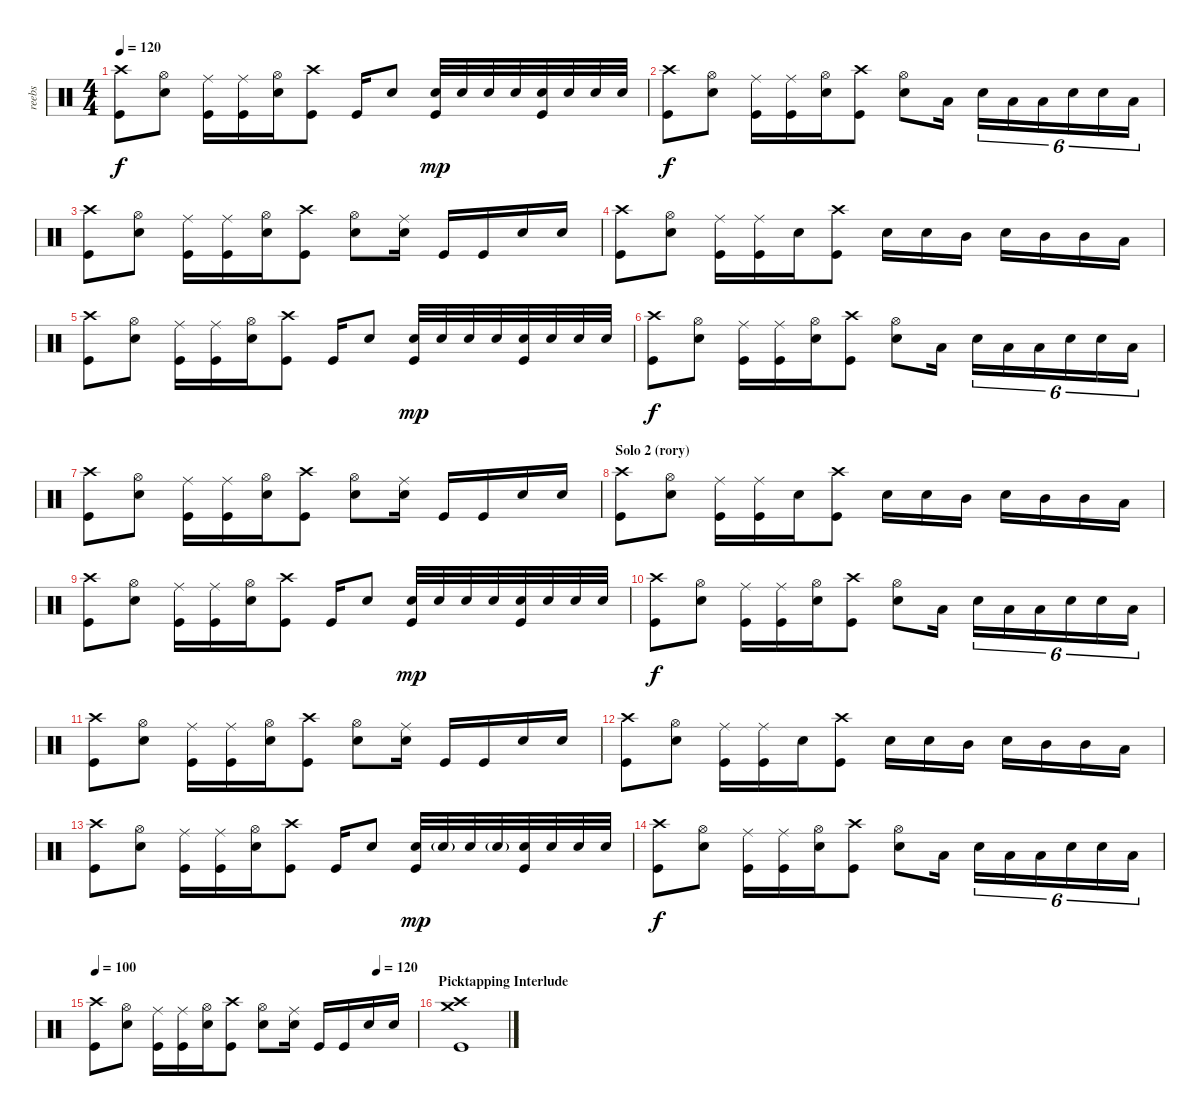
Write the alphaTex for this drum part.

\track ("reebs" "reebs") {instrument percussion}
\staff {score}
\articulation defaults
\ts (4 4)
\tempo 120
\clef neutral
\ks c
("Crash high (hit)" "Kick (hit)").8{dy f} ("Hi-Hat (open)" "Electric Snare (hit)").8 ("Ride (middle)" "Kick (hit)").16 ("Ride (middle)" "Kick (hit)").16 ("Hi-Hat (open)" "Electric Snare (hit)").16 ("Crash high (hit)" "Kick (hit)").8 "Kick (hit)".16 "Electric Snare (hit)".8 ("Electric Snare (hit)" "Kick (hit)").32{dy mp} "Electric Snare (hit)".32 "Electric Snare (hit)".32 "Electric Snare (hit)".32 ("Electric Snare (hit)" "Kick (hit)").32 "Electric Snare (hit)".32 "Electric Snare (hit)".32 "Electric Snare (hit)".32 |
("Crash high (hit)" "Kick (hit)").8{dy f} ("Hi-Hat (open)" "Electric Snare (hit)").8 ("Ride (middle)" "Kick (hit)").16 ("Ride (middle)" "Kick (hit)").16 ("Hi-Hat (open)" "Electric Snare (hit)").16 ("Crash high (hit)" "Kick (hit)").8 ("Hi-Hat (open)" "Electric Snare (hit)").8 "Low Tom (hit)".16 "Electric Snare (hit)".16{tu (6 4)} "Low Tom (hit)".16{tu (6 4)} "Low Tom (hit)".16{tu (6 4)} "Electric Snare (hit)".16{tu (6 4)} "Electric Snare (hit)".16{tu (6 4)} "Low Tom (hit)".16{tu (6 4)} |
("Crash high (hit)" "Kick (hit)").8 ("Hi-Hat (open)" "Electric Snare (hit)").8 ("Ride (middle)" "Kick (hit)").16 ("Ride (middle)" "Kick (hit)").16 ("Hi-Hat (open)" "Electric Snare (hit)").16 ("Crash high (hit)" "Kick (hit)").8 ("Hi-Hat (open)" "Electric Snare (hit)").8 ("Ride (middle)" "Electric Snare (hit)").16 "Kick (hit)".16 "Kick (hit)".16 "Electric Snare (hit)".16 "Electric Snare (hit)".16 |
("Crash high (hit)" "Kick (hit)").8 ("Hi-Hat (open)" "Electric Snare (hit)").8 ("Ride (middle)" "Kick (hit)").16 ("Ride (middle)" "Kick (hit)").16 "Electric Snare (hit)".16 ("Crash high (hit)" "Kick (hit)").8 "Electric Snare (hit)".16 "Electric Snare (hit)".16 "Mid Tom (hit)".16 "Electric Snare (hit)".16 "Mid Tom (hit)".16 "Mid Tom (hit)".16 "Low Tom (hit)".16 |
("Crash high (hit)" "Kick (hit)").8 ("Hi-Hat (open)" "Electric Snare (hit)").8 ("Ride (middle)" "Kick (hit)").16 ("Ride (middle)" "Kick (hit)").16 ("Hi-Hat (open)" "Electric Snare (hit)").16 ("Crash high (hit)" "Kick (hit)").8 "Kick (hit)".16 "Electric Snare (hit)".8 ("Electric Snare (hit)" "Kick (hit)").32{dy mp} "Electric Snare (hit)".32 "Electric Snare (hit)".32 "Electric Snare (hit)".32 ("Electric Snare (hit)" "Kick (hit)").32 "Electric Snare (hit)".32 "Electric Snare (hit)".32 "Electric Snare (hit)".32 |
("Crash high (hit)" "Kick (hit)").8{dy f} ("Hi-Hat (open)" "Electric Snare (hit)").8 ("Ride (middle)" "Kick (hit)").16 ("Ride (middle)" "Kick (hit)").16 ("Hi-Hat (open)" "Electric Snare (hit)").16 ("Crash high (hit)" "Kick (hit)").8 ("Hi-Hat (open)" "Electric Snare (hit)").8 "Low Tom (hit)".16 "Electric Snare (hit)".16{tu (6 4)} "Low Tom (hit)".16{tu (6 4)} "Low Tom (hit)".16{tu (6 4)} "Electric Snare (hit)".16{tu (6 4)} "Electric Snare (hit)".16{tu (6 4)} "Low Tom (hit)".16{tu (6 4)} |
("Crash high (hit)" "Kick (hit)").8 ("Hi-Hat (open)" "Electric Snare (hit)").8 ("Ride (middle)" "Kick (hit)").16 ("Ride (middle)" "Kick (hit)").16 ("Hi-Hat (open)" "Electric Snare (hit)").16 ("Crash high (hit)" "Kick (hit)").8 ("Hi-Hat (open)" "Electric Snare (hit)").8 ("Ride (middle)" "Electric Snare (hit)").16 "Kick (hit)".16 "Kick (hit)".16 "Electric Snare (hit)".16 "Electric Snare (hit)".16 |
\section ("" "Solo 2 (rory)")
("Crash high (hit)" "Kick (hit)").8 ("Hi-Hat (open)" "Electric Snare (hit)").8 ("Ride (middle)" "Kick (hit)").16 ("Ride (middle)" "Kick (hit)").16 "Electric Snare (hit)".16 ("Crash high (hit)" "Kick (hit)").8 "Electric Snare (hit)".16 "Electric Snare (hit)".16 "Mid Tom (hit)".16 "Electric Snare (hit)".16 "Mid Tom (hit)".16 "Mid Tom (hit)".16 "Low Tom (hit)".16 |
("Crash high (hit)" "Kick (hit)").8 ("Hi-Hat (open)" "Electric Snare (hit)").8 ("Ride (middle)" "Kick (hit)").16 ("Ride (middle)" "Kick (hit)").16 ("Hi-Hat (open)" "Electric Snare (hit)").16 ("Crash high (hit)" "Kick (hit)").8 "Kick (hit)".16 "Electric Snare (hit)".8 ("Electric Snare (hit)" "Kick (hit)").32{dy mp} "Electric Snare (hit)".32 "Electric Snare (hit)".32 "Electric Snare (hit)".32 ("Electric Snare (hit)" "Kick (hit)").32 "Electric Snare (hit)".32 "Electric Snare (hit)".32 "Electric Snare (hit)".32 |
("Crash high (hit)" "Kick (hit)").8{dy f} ("Hi-Hat (open)" "Electric Snare (hit)").8 ("Ride (middle)" "Kick (hit)").16 ("Ride (middle)" "Kick (hit)").16 ("Hi-Hat (open)" "Electric Snare (hit)").16 ("Crash high (hit)" "Kick (hit)").8 ("Hi-Hat (open)" "Electric Snare (hit)").8 "Low Tom (hit)".16 "Electric Snare (hit)".16{tu (6 4)} "Low Tom (hit)".16{tu (6 4)} "Low Tom (hit)".16{tu (6 4)} "Electric Snare (hit)".16{tu (6 4)} "Electric Snare (hit)".16{tu (6 4)} "Low Tom (hit)".16{tu (6 4)} |
("Crash high (hit)" "Kick (hit)").8 ("Hi-Hat (open)" "Electric Snare (hit)").8 ("Ride (middle)" "Kick (hit)").16 ("Ride (middle)" "Kick (hit)").16 ("Hi-Hat (open)" "Electric Snare (hit)").16 ("Crash high (hit)" "Kick (hit)").8 ("Hi-Hat (open)" "Electric Snare (hit)").8 ("Ride (middle)" "Electric Snare (hit)").16 "Kick (hit)".16 "Kick (hit)".16 "Electric Snare (hit)".16 "Electric Snare (hit)".16 |
("Crash high (hit)" "Kick (hit)").8 ("Hi-Hat (open)" "Electric Snare (hit)").8 ("Ride (middle)" "Kick (hit)").16 ("Ride (middle)" "Kick (hit)").16 "Electric Snare (hit)".16 ("Crash high (hit)" "Kick (hit)").8 "Electric Snare (hit)".16 "Electric Snare (hit)".16 "Mid Tom (hit)".16 "Electric Snare (hit)".16 "Mid Tom (hit)".16 "Mid Tom (hit)".16 "Low Tom (hit)".16 |
("Crash high (hit)" "Kick (hit)").8 ("Hi-Hat (open)" "Electric Snare (hit)").8 ("Ride (middle)" "Kick (hit)").16 ("Ride (middle)" "Kick (hit)").16 ("Hi-Hat (open)" "Electric Snare (hit)").16 ("Crash high (hit)" "Kick (hit)").8 "Kick (hit)".16 "Electric Snare (hit)".8 ("Electric Snare (hit)" "Kick (hit)").32{dy mp} "Electric Snare (hit)"{g}.32 "Electric Snare (hit)".32 "Electric Snare (hit)"{g}.32 ("Electric Snare (hit)" "Kick (hit)").32 "Electric Snare (hit)".32 "Electric Snare (hit)".32 "Electric Snare (hit)".32 |
("Crash high (hit)" "Kick (hit)").8{dy f} ("Hi-Hat (open)" "Electric Snare (hit)").8 ("Ride (middle)" "Kick (hit)").16 ("Ride (middle)" "Kick (hit)").16 ("Hi-Hat (open)" "Electric Snare (hit)").16 ("Crash high (hit)" "Kick (hit)").8 ("Hi-Hat (open)" "Electric Snare (hit)").8 "Low Tom (hit)".16 "Electric Snare (hit)".16{tu (6 4)} "Low Tom (hit)".16{tu (6 4)} "Low Tom (hit)".16{tu (6 4)} "Electric Snare (hit)".16{tu (6 4)} "Electric Snare (hit)".16{tu (6 4)} "Low Tom (hit)".16{tu (6 4)} |
\tempo 100
\tempo (120 0.875)
("Crash high (hit)" "Kick (hit)").8 ("Hi-Hat (open)" "Electric Snare (hit)").8 ("Ride (middle)" "Kick (hit)").16 ("Ride (middle)" "Kick (hit)").16 ("Hi-Hat (open)" "Electric Snare (hit)").16 ("Crash high (hit)" "Kick (hit)").8 ("Hi-Hat (open)" "Electric Snare (hit)").8 ("Ride (middle)" "Electric Snare (hit)").16 "Kick (hit)".16 "Kick (hit)".16 "Electric Snare (hit)".16 "Electric Snare (hit)".16 |
\section ("" "Picktapping Interlude")
("Crash high (hit)" "Crash medium (hit)" "Kick (hit)").1
